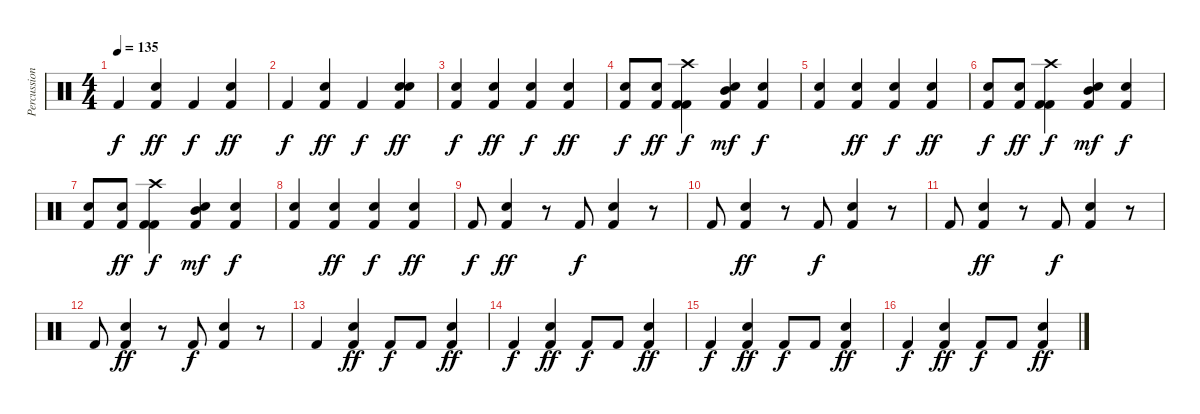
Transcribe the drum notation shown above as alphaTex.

\track ("Percussion" "Percussion") {instrument percussion}
\staff {score}
\articulation defaults
\ts (4 4)
\tempo 135
\clef neutral
\ks c "Kick (hit) 2".4{dy f}
("Electric Snare (hit)" "Kick (hit) 2").4{dy ff} "Kick (hit) 2".4{dy f} ("Electric Snare (hit)" "Kick (hit) 2").4{dy ff} |
"Kick (hit) 2".4{dy f} ("Electric Snare (hit)" "Kick (hit) 2").4{dy ff} "Kick (hit) 2".4{dy f} ("Snare (hit) 2" "Electric Snare (hit)" "Kick (hit) 2").4{dy ff} |
("Electric Snare (hit)" "Kick (hit) 2").4{dy f} ("Electric Snare (hit)" "Kick (hit) 2").4{dy ff} ("Electric Snare (hit)" "Kick (hit) 2").4{dy f} ("Electric Snare (hit)" "Kick (hit) 2").4{dy ff} |
("Electric Snare (hit)" "Kick (hit) 2").8{dy f} ("Electric Snare (hit)" "Kick (hit) 2").8{dy ff} ("Crash high (hit)" "Kick (hit) 2" "Kick (hit) 2").4{dy f} ("Electric Snare (hit)" "Mid Tom (hit)" "Kick (hit) 2").4{dy mf} ("Electric Snare (hit)" "Kick (hit) 2").4{dy f} |
("Electric Snare (hit)" "Kick (hit) 2").4 ("Electric Snare (hit)" "Kick (hit) 2").4{dy ff} ("Electric Snare (hit)" "Kick (hit) 2").4{dy f} ("Electric Snare (hit)" "Kick (hit) 2").4{dy ff} |
("Electric Snare (hit)" "Kick (hit) 2").8{dy f} ("Electric Snare (hit)" "Kick (hit) 2").8{dy ff} ("Crash high (hit)" "Kick (hit) 2" "Kick (hit) 2").4{dy f} ("Electric Snare (hit)" "Mid Tom (hit)" "Kick (hit) 2").4{dy mf} ("Electric Snare (hit)" "Kick (hit) 2").4{dy f} |
("Electric Snare (hit)" "Kick (hit) 2").8 ("Electric Snare (hit)" "Kick (hit) 2").8{dy ff} ("Crash high (hit)" "Kick (hit) 2" "Kick (hit) 2").4{dy f} ("Electric Snare (hit)" "Mid Tom (hit)" "Kick (hit) 2").4{dy mf} ("Electric Snare (hit)" "Kick (hit) 2").4{dy f} |
("Electric Snare (hit)" "Kick (hit) 2").4 ("Electric Snare (hit)" "Kick (hit) 2").4{dy ff} ("Electric Snare (hit)" "Kick (hit) 2").4{dy f} ("Electric Snare (hit)" "Kick (hit) 2").4{dy ff} |
"Kick (hit) 2".8{dy f} ("Electric Snare (hit)" "Kick (hit) 2").4{dy ff} r.8 "Kick (hit) 2".8{dy f} ("Electric Snare (hit)" "Kick (hit) 2").4 r.8 |
"Kick (hit) 2".8 ("Electric Snare (hit)" "Kick (hit) 2").4{dy ff} r.8 "Kick (hit) 2".8{dy f} ("Electric Snare (hit)" "Kick (hit) 2").4 r.8 |
"Kick (hit) 2".8 ("Electric Snare (hit)" "Kick (hit) 2").4{dy ff} r.8 "Kick (hit) 2".8{dy f} ("Electric Snare (hit)" "Kick (hit) 2").4 r.8 |
"Kick (hit) 2".8 ("Electric Snare (hit)" "Kick (hit) 2").4{dy ff} r.8 "Kick (hit) 2".8{dy f} ("Electric Snare (hit)" "Kick (hit) 2").4 r.8 |
"Kick (hit) 2".4 ("Electric Snare (hit)" "Kick (hit) 2").4{dy ff} "Kick (hit) 2".8{dy f} "Kick (hit) 2".8 ("Electric Snare (hit)" "Kick (hit) 2").4{dy ff} |
"Kick (hit) 2".4{dy f} ("Electric Snare (hit)" "Kick (hit) 2").4{dy ff} "Kick (hit) 2".8{dy f} "Kick (hit) 2".8 ("Electric Snare (hit)" "Kick (hit) 2").4{dy ff} |
"Kick (hit) 2".4{dy f} ("Electric Snare (hit)" "Kick (hit) 2").4{dy ff} "Kick (hit) 2".8{dy f} "Kick (hit) 2".8 ("Electric Snare (hit)" "Kick (hit) 2").4{dy ff} |
"Kick (hit) 2".4{dy f} ("Electric Snare (hit)" "Kick (hit) 2").4{dy ff} "Kick (hit) 2".8{dy f} "Kick (hit) 2".8 ("Electric Snare (hit)" "Kick (hit) 2").4{dy ff}
